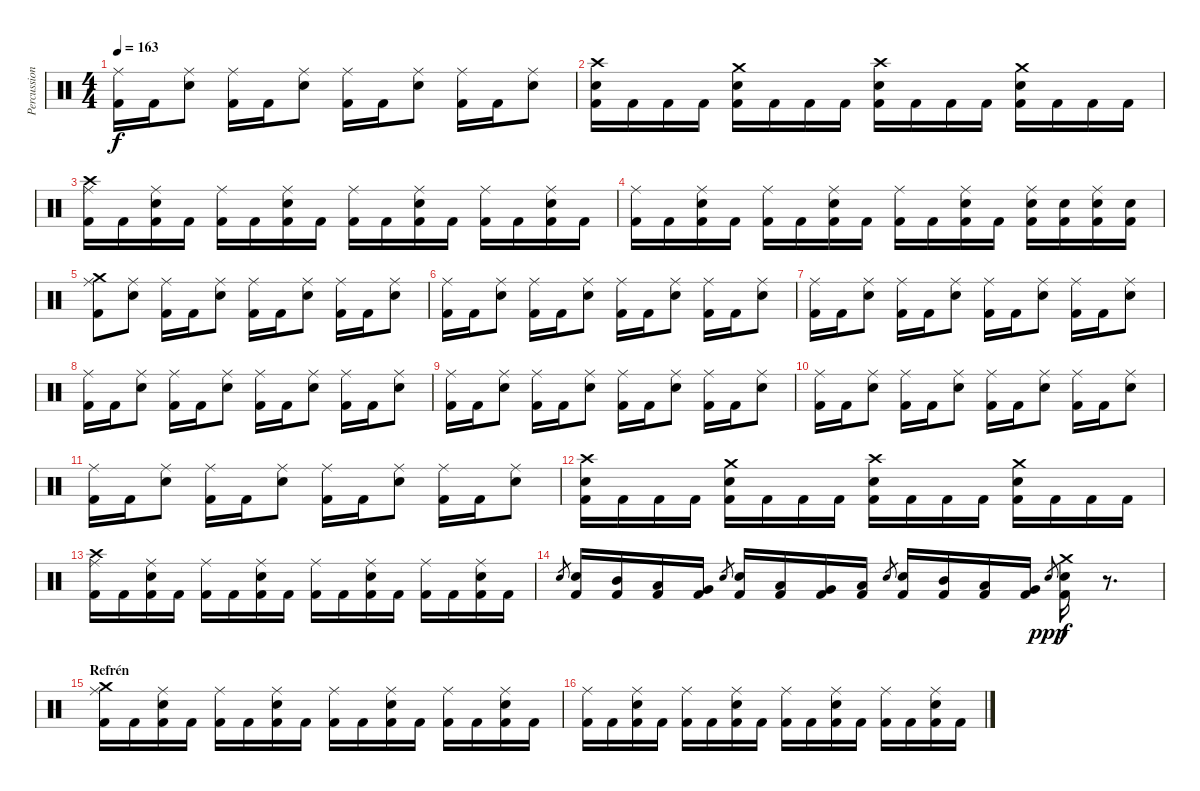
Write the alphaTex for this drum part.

\track ("Percussion" "Percussion") {instrument percussion}
\staff {score}
\articulation defaults
\ts (4 4)
\tempo 163
\clef neutral
\ks c
("Ride (middle)" "Kick (hit) 2").16{dy f} "Kick (hit) 2".16 ("Ride (middle)" "Electric Snare (hit)").8 ("Ride (middle)" "Kick (hit) 2").16 "Kick (hit) 2".16 ("Ride (middle)" "Electric Snare (hit)").8 ("Ride (middle)" "Kick (hit) 2").16 "Kick (hit) 2".16 ("Ride (middle)" "Electric Snare (hit)").8 ("Ride (middle)" "Kick (hit) 2").16 "Kick (hit) 2".16 ("Ride (middle)" "Electric Snare (hit)").8 |
("Crash high (hit)" "Kick (hit) 2" "Electric Snare (hit)").16 "Kick (hit) 2".16 "Kick (hit) 2".16 "Kick (hit) 2".16 ("Crash medium (hit)" "Kick (hit) 2" "Electric Snare (hit)").16 "Kick (hit) 2".16 "Kick (hit) 2".16 "Kick (hit) 2".16 ("Crash high (hit)" "Kick (hit) 2" "Electric Snare (hit)").16 "Kick (hit) 2".16 "Kick (hit) 2".16 "Kick (hit) 2".16 ("Crash medium (hit)" "Kick (hit) 2" "Electric Snare (hit)").16 "Kick (hit) 2".16 "Kick (hit) 2".16 "Kick (hit) 2".16 |
("Ride (middle)" "Crash high (hit)" "Kick (hit) 2").16 "Kick (hit) 2".16 ("Ride (middle)" "Kick (hit) 2" "Electric Snare (hit)").16 "Kick (hit) 2".16 ("Ride (middle)" "Kick (hit) 2").16 "Kick (hit) 2".16 ("Ride (middle)" "Kick (hit) 2" "Electric Snare (hit)").16 "Kick (hit) 2".16 ("Ride (middle)" "Kick (hit) 2").16 "Kick (hit) 2".16 ("Ride (middle)" "Kick (hit) 2" "Electric Snare (hit)").16 "Kick (hit) 2".16 ("Ride (middle)" "Kick (hit) 2").16 "Kick (hit) 2".16 ("Ride (middle)" "Kick (hit) 2" "Electric Snare (hit)").16 "Kick (hit) 2".16 |
("Ride (middle)" "Kick (hit) 2").16 "Kick (hit) 2".16 ("Ride (middle)" "Kick (hit) 2" "Electric Snare (hit)").16 "Kick (hit) 2".16 ("Ride (middle)" "Kick (hit) 2").16 "Kick (hit) 2".16 ("Ride (middle)" "Kick (hit) 2" "Electric Snare (hit)").16 "Kick (hit) 2".16 ("Ride (middle)" "Kick (hit) 2").16 "Kick (hit) 2".16 ("Ride (middle)" "Kick (hit) 2" "Electric Snare (hit)").16 "Kick (hit) 2".16 ("Ride (middle)" "Kick (hit) 2" "Electric Snare (hit)").16 ("Kick (hit) 2" "Electric Snare (hit)").16 ("Ride (middle)" "Kick (hit) 2" "Electric Snare (hit)").16 ("Kick (hit) 2" "Electric Snare (hit)").16 |
("Ride (middle)" "Crash medium (hit)" "Kick (hit) 2").8 ("Ride (middle)" "Electric Snare (hit)").8 ("Ride (middle)" "Kick (hit) 2").16 "Kick (hit) 2".16 ("Ride (middle)" "Electric Snare (hit)").8 ("Ride (middle)" "Kick (hit) 2").16 "Kick (hit) 2".16 ("Ride (middle)" "Electric Snare (hit)").8 ("Ride (middle)" "Kick (hit) 2").16 "Kick (hit) 2".16 ("Ride (middle)" "Electric Snare (hit)").8 |
("Ride (middle)" "Kick (hit) 2").16 "Kick (hit) 2".16 ("Ride (middle)" "Electric Snare (hit)").8 ("Ride (middle)" "Kick (hit) 2").16 "Kick (hit) 2".16 ("Ride (middle)" "Electric Snare (hit)").8 ("Ride (middle)" "Kick (hit) 2").16 "Kick (hit) 2".16 ("Ride (middle)" "Electric Snare (hit)").8 ("Ride (middle)" "Kick (hit) 2").16 "Kick (hit) 2".16 ("Ride (middle)" "Electric Snare (hit)").8 |
("Ride (middle)" "Kick (hit) 2").16 "Kick (hit) 2".16 ("Ride (middle)" "Electric Snare (hit)").8 ("Ride (middle)" "Kick (hit) 2").16 "Kick (hit) 2".16 ("Ride (middle)" "Electric Snare (hit)").8 ("Ride (middle)" "Kick (hit) 2").16 "Kick (hit) 2".16 ("Ride (middle)" "Electric Snare (hit)").8 ("Ride (middle)" "Kick (hit) 2").16 "Kick (hit) 2".16 ("Ride (middle)" "Electric Snare (hit)").8 |
("Ride (middle)" "Kick (hit) 2").16 "Kick (hit) 2".16 ("Ride (middle)" "Electric Snare (hit)").8 ("Ride (middle)" "Kick (hit) 2").16 "Kick (hit) 2".16 ("Ride (middle)" "Electric Snare (hit)").8 ("Ride (middle)" "Kick (hit) 2").16 "Kick (hit) 2".16 ("Ride (middle)" "Electric Snare (hit)").8 ("Ride (middle)" "Kick (hit) 2").16 "Kick (hit) 2".16 ("Ride (middle)" "Electric Snare (hit)").8 |
("Ride (middle)" "Kick (hit) 2").16 "Kick (hit) 2".16 ("Ride (middle)" "Electric Snare (hit)").8 ("Ride (middle)" "Kick (hit) 2").16 "Kick (hit) 2".16 ("Ride (middle)" "Electric Snare (hit)").8 ("Ride (middle)" "Kick (hit) 2").16 "Kick (hit) 2".16 ("Ride (middle)" "Electric Snare (hit)").8 ("Ride (middle)" "Kick (hit) 2").16 "Kick (hit) 2".16 ("Ride (middle)" "Electric Snare (hit)").8 |
("Ride (middle)" "Kick (hit) 2").16 "Kick (hit) 2".16 ("Ride (middle)" "Electric Snare (hit)").8 ("Ride (middle)" "Kick (hit) 2").16 "Kick (hit) 2".16 ("Ride (middle)" "Electric Snare (hit)").8 ("Ride (middle)" "Kick (hit) 2").16 "Kick (hit) 2".16 ("Ride (middle)" "Electric Snare (hit)").8 ("Ride (middle)" "Kick (hit) 2").16 "Kick (hit) 2".16 ("Ride (middle)" "Electric Snare (hit)").8 |
("Ride (middle)" "Kick (hit) 2").16 "Kick (hit) 2".16 ("Ride (middle)" "Electric Snare (hit)").8 ("Ride (middle)" "Kick (hit) 2").16 "Kick (hit) 2".16 ("Ride (middle)" "Electric Snare (hit)").8 ("Ride (middle)" "Kick (hit) 2").16 "Kick (hit) 2".16 ("Ride (middle)" "Electric Snare (hit)").8 ("Ride (middle)" "Kick (hit) 2").16 "Kick (hit) 2".16 ("Ride (middle)" "Electric Snare (hit)").8 |
("Crash high (hit)" "Kick (hit) 2" "Electric Snare (hit)").16 "Kick (hit) 2".16 "Kick (hit) 2".16 "Kick (hit) 2".16 ("Crash medium (hit)" "Kick (hit) 2" "Electric Snare (hit)").16 "Kick (hit) 2".16 "Kick (hit) 2".16 "Kick (hit) 2".16 ("Crash high (hit)" "Kick (hit) 2" "Electric Snare (hit)").16 "Kick (hit) 2".16 "Kick (hit) 2".16 "Kick (hit) 2".16 ("Crash medium (hit)" "Kick (hit) 2" "Electric Snare (hit)").16 "Kick (hit) 2".16 "Kick (hit) 2".16 "Kick (hit) 2".16 |
("Ride (middle)" "Crash high (hit)" "Kick (hit) 2").16 "Kick (hit) 2".16 ("Ride (middle)" "Kick (hit) 2" "Electric Snare (hit)").16 "Kick (hit) 2".16 ("Ride (middle)" "Kick (hit) 2").16 "Kick (hit) 2".16 ("Ride (middle)" "Kick (hit) 2" "Electric Snare (hit)").16 "Kick (hit) 2".16 ("Ride (middle)" "Kick (hit) 2").16 "Kick (hit) 2".16 ("Ride (middle)" "Kick (hit) 2" "Electric Snare (hit)").16 "Kick (hit) 2".16 ("Ride (middle)" "Kick (hit) 2").16 "Kick (hit) 2".16 ("Ride (middle)" "Kick (hit) 2" "Electric Snare (hit)").16 "Kick (hit) 2".16 |
"Electric Snare (hit)".8{gr} ("Kick (hit) 2" "Electric Snare (hit)").16 ("Kick (hit) 2" "Mid Tom (hit)").16 ("Kick (hit) 2" "Low Tom (hit)").16 ("Kick (hit) 2" "Very Low Tom (hit)").16 "Electric Snare (hit)".8{gr} ("Kick (hit) 2" "Electric Snare (hit)").16 ("Kick (hit) 2" "Low Tom (hit)").16 ("Kick (hit) 2" "Very Low Tom (hit)").16 ("Kick (hit) 2" "Low Floor Tom (hit)").16 "Electric Snare (hit)".8{gr} ("Kick (hit) 2" "Electric Snare (hit)").16 ("Kick (hit) 2" "Mid Tom (hit)").16 ("Kick (hit) 2" "Low Tom (hit)").16 ("Kick (hit) 2" "Very Low Tom (hit)").16 "Electric Snare (hit)".8{gr dy ppp} ("Crash medium (hit)" "Kick (hit) 2" "Electric Snare (hit)").16{dy f} r.8{d} |
\section ("" "Refrén")
("Ride (middle)" "Crash medium (hit)" "Kick (hit) 2").16 "Kick (hit) 2".16 ("Ride (middle)" "Kick (hit) 2" "Electric Snare (hit)").16 "Kick (hit) 2".16 ("Ride (middle)" "Kick (hit) 2").16 "Kick (hit) 2".16 ("Ride (middle)" "Kick (hit) 2" "Electric Snare (hit)").16 "Kick (hit) 2".16 ("Ride (middle)" "Kick (hit) 2").16 "Kick (hit) 2".16 ("Ride (middle)" "Kick (hit) 2" "Electric Snare (hit)").16 "Kick (hit) 2".16 ("Ride (middle)" "Kick (hit) 2").16 "Kick (hit) 2".16 ("Ride (middle)" "Kick (hit) 2" "Electric Snare (hit)").16 "Kick (hit) 2".16 |
("Ride (middle)" "Kick (hit) 2").16 "Kick (hit) 2".16 ("Ride (middle)" "Kick (hit) 2" "Electric Snare (hit)").16 "Kick (hit) 2".16 ("Ride (middle)" "Kick (hit) 2").16 "Kick (hit) 2".16 ("Ride (middle)" "Kick (hit) 2" "Electric Snare (hit)").16 "Kick (hit) 2".16 ("Ride (middle)" "Kick (hit) 2").16 "Kick (hit) 2".16 ("Ride (middle)" "Kick (hit) 2" "Electric Snare (hit)").16 "Kick (hit) 2".16 ("Ride (middle)" "Kick (hit) 2").16 "Kick (hit) 2".16 ("Ride (middle)" "Kick (hit) 2" "Electric Snare (hit)").16 "Kick (hit) 2".16
